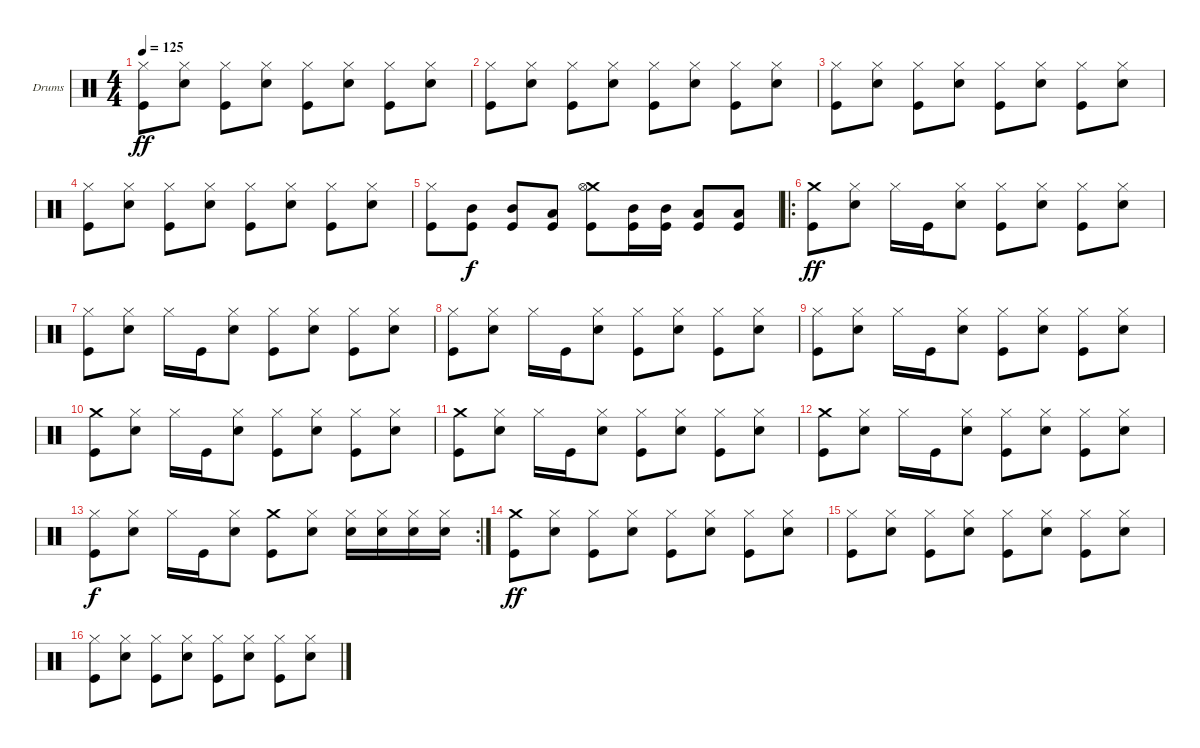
\defaultSystemsLayout 4
\bracketExtendMode groupsimilarinstruments
\firstSystemTrackNameOrientation horizontal
\otherSystemsTrackNameOrientation horizontal
\track ("Drumkit" "Drums") {instrument percussion}
\staff {score}
\articulation defaults
\ts (4 4)
\tempo 125
\clef neutral
\ks c
("Kick (hit)" "Hi-Hat (closed)").8{dy ff} ("Snare (hit) 2" "Hi-Hat (closed)").8 ("Kick (hit)" "Hi-Hat (closed)").8 ("Snare (hit) 2" "Hi-Hat (closed)").8 ("Kick (hit)" "Hi-Hat (closed)").8 ("Snare (hit) 2" "Hi-Hat (closed)").8 ("Kick (hit)" "Hi-Hat (closed)").8 ("Snare (hit) 2" "Hi-Hat (closed)").8 |
("Kick (hit)" "Hi-Hat (closed)").8 ("Snare (hit) 2" "Hi-Hat (closed)").8 ("Kick (hit)" "Hi-Hat (closed)").8 ("Snare (hit) 2" "Hi-Hat (closed)").8 ("Kick (hit)" "Hi-Hat (closed)").8 ("Snare (hit) 2" "Hi-Hat (closed)").8 ("Kick (hit)" "Hi-Hat (closed)").8 ("Snare (hit) 2" "Hi-Hat (closed)").8 |
("Kick (hit)" "Hi-Hat (closed)").8 ("Snare (hit) 2" "Hi-Hat (closed)").8 ("Kick (hit)" "Hi-Hat (closed)").8 ("Snare (hit) 2" "Hi-Hat (closed)").8 ("Kick (hit)" "Hi-Hat (closed)").8 ("Snare (hit) 2" "Hi-Hat (closed)").8 ("Kick (hit)" "Hi-Hat (closed)").8 ("Snare (hit) 2" "Hi-Hat (closed)").8 |
("Kick (hit)" "Hi-Hat (closed)").8 ("Snare (hit) 2" "Hi-Hat (closed)").8 ("Kick (hit)" "Hi-Hat (closed)").8 ("Snare (hit) 2" "Hi-Hat (closed)").8 ("Kick (hit)" "Hi-Hat (closed)").8 ("Snare (hit) 2" "Hi-Hat (closed)").8 ("Kick (hit)" "Hi-Hat (closed)").8 ("Snare (hit) 2" "Hi-Hat (closed)").8 |
("Kick (hit)" "Hi-Hat (closed)").8 ("Mid Tom (hit)" "Kick (hit)").8{dy f} ("Mid Tom (hit)" "Kick (hit)").8 ("Low Tom (hit)" "Kick (hit)").8 ("Kick (hit)" "Crash medium (hit)" "Hi-Hat (open)").8 ("Mid Tom (hit)" "Kick (hit)").16 ("Mid Tom (hit)" "Kick (hit)").16 ("Low Tom (hit)" "Kick (hit)").8 ("Low Tom (hit)" "Kick (hit)").8 |
\ro
("Kick (hit)" "Crash medium (hit)").8{dy ff} ("Snare (hit) 2" "Hi-Hat (closed)").8 "Hi-Hat (closed)".16 "Kick (hit)".16 ("Snare (hit) 2" "Hi-Hat (closed)").8 ("Kick (hit)" "Hi-Hat (closed)").8 ("Snare (hit) 2" "Hi-Hat (closed)").8 ("Kick (hit)" "Hi-Hat (closed)").8 ("Snare (hit) 2" "Hi-Hat (closed)").8 |
("Kick (hit)" "Hi-Hat (closed)").8 ("Snare (hit) 2" "Hi-Hat (closed)").8 "Hi-Hat (closed)".16 "Kick (hit)".16 ("Snare (hit) 2" "Hi-Hat (closed)").8 ("Kick (hit)" "Hi-Hat (closed)").8 ("Snare (hit) 2" "Hi-Hat (closed)").8 ("Kick (hit)" "Hi-Hat (closed)").8 ("Snare (hit) 2" "Hi-Hat (closed)").8 |
("Kick (hit)" "Hi-Hat (closed)").8 ("Snare (hit) 2" "Hi-Hat (closed)").8 "Hi-Hat (closed)".16 "Kick (hit)".16 ("Snare (hit) 2" "Hi-Hat (closed)").8 ("Kick (hit)" "Hi-Hat (closed)").8 ("Snare (hit) 2" "Hi-Hat (closed)").8 ("Kick (hit)" "Hi-Hat (closed)").8 ("Snare (hit) 2" "Hi-Hat (closed)").8 |
("Kick (hit)" "Hi-Hat (closed)").8 ("Snare (hit) 2" "Hi-Hat (closed)").8 "Hi-Hat (closed)".16 "Kick (hit)".16 ("Snare (hit) 2" "Hi-Hat (closed)").8 ("Kick (hit)" "Hi-Hat (closed)").8 ("Snare (hit) 2" "Hi-Hat (closed)").8 ("Kick (hit)" "Hi-Hat (closed)").8 ("Snare (hit) 2" "Hi-Hat (closed)").8 |
("Kick (hit)" "Crash medium (hit)").8 ("Snare (hit) 2" "Hi-Hat (closed)").8 "Hi-Hat (closed)".16 "Kick (hit)".16 ("Snare (hit) 2" "Hi-Hat (closed)").8 ("Kick (hit)" "Hi-Hat (closed)").8 ("Snare (hit) 2" "Hi-Hat (closed)").8 ("Kick (hit)" "Hi-Hat (closed)").8 ("Snare (hit) 2" "Hi-Hat (closed)").8 |
("Kick (hit)" "Crash medium (hit)").8 ("Snare (hit) 2" "Hi-Hat (closed)").8 "Hi-Hat (closed)".16 "Kick (hit)".16 ("Snare (hit) 2" "Hi-Hat (closed)").8 ("Kick (hit)" "Hi-Hat (closed)").8 ("Snare (hit) 2" "Hi-Hat (closed)").8 ("Kick (hit)" "Hi-Hat (closed)").8 ("Snare (hit) 2" "Hi-Hat (closed)").8 |
("Kick (hit)" "Crash medium (hit)").8 ("Snare (hit) 2" "Hi-Hat (closed)").8 "Hi-Hat (closed)".16 "Kick (hit)".16 ("Snare (hit) 2" "Hi-Hat (closed)").8 ("Kick (hit)" "Hi-Hat (closed)").8 ("Snare (hit) 2" "Hi-Hat (closed)").8 ("Kick (hit)" "Hi-Hat (closed)").8 ("Snare (hit) 2" "Hi-Hat (closed)").8 |
\rc 2
("Kick (hit)" "Hi-Hat (closed)").8{dy f} ("Snare (hit) 2" "Hi-Hat (closed)").8 "Hi-Hat (closed)".16 "Kick (hit)".16 ("Snare (hit) 2" "Hi-Hat (closed)").8 ("Kick (hit)" "Crash medium (hit)").8 ("Snare (hit) 2" "Hi-Hat (closed)").8 ("Snare (hit) 2" "Hi-Hat (closed)").16 ("Snare (hit) 2" "Hi-Hat (closed)").16 ("Snare (hit) 2" "Hi-Hat (closed)").16 ("Snare (hit) 2" "Hi-Hat (closed)").16 |
("Kick (hit)" "Crash medium (hit)").8{dy ff} ("Snare (hit) 2" "Hi-Hat (closed)").8 ("Kick (hit)" "Hi-Hat (closed)").8 ("Snare (hit) 2" "Hi-Hat (closed)").8 ("Kick (hit)" "Hi-Hat (closed)").8 ("Snare (hit) 2" "Hi-Hat (closed)").8 ("Kick (hit)" "Hi-Hat (closed)").8 ("Snare (hit) 2" "Hi-Hat (closed)").8 |
("Kick (hit)" "Hi-Hat (closed)").8 ("Snare (hit) 2" "Hi-Hat (closed)").8 ("Kick (hit)" "Hi-Hat (closed)").8 ("Snare (hit) 2" "Hi-Hat (closed)").8 ("Kick (hit)" "Hi-Hat (closed)").8 ("Snare (hit) 2" "Hi-Hat (closed)").8 ("Kick (hit)" "Hi-Hat (closed)").8 ("Snare (hit) 2" "Hi-Hat (closed)").8 |
("Kick (hit)" "Hi-Hat (closed)").8 ("Snare (hit) 2" "Hi-Hat (closed)").8 ("Kick (hit)" "Hi-Hat (closed)").8 ("Snare (hit) 2" "Hi-Hat (closed)").8 ("Kick (hit)" "Hi-Hat (closed)").8 ("Snare (hit) 2" "Hi-Hat (closed)").8 ("Kick (hit)" "Hi-Hat (closed)").8 ("Snare (hit) 2" "Hi-Hat (closed)").8
